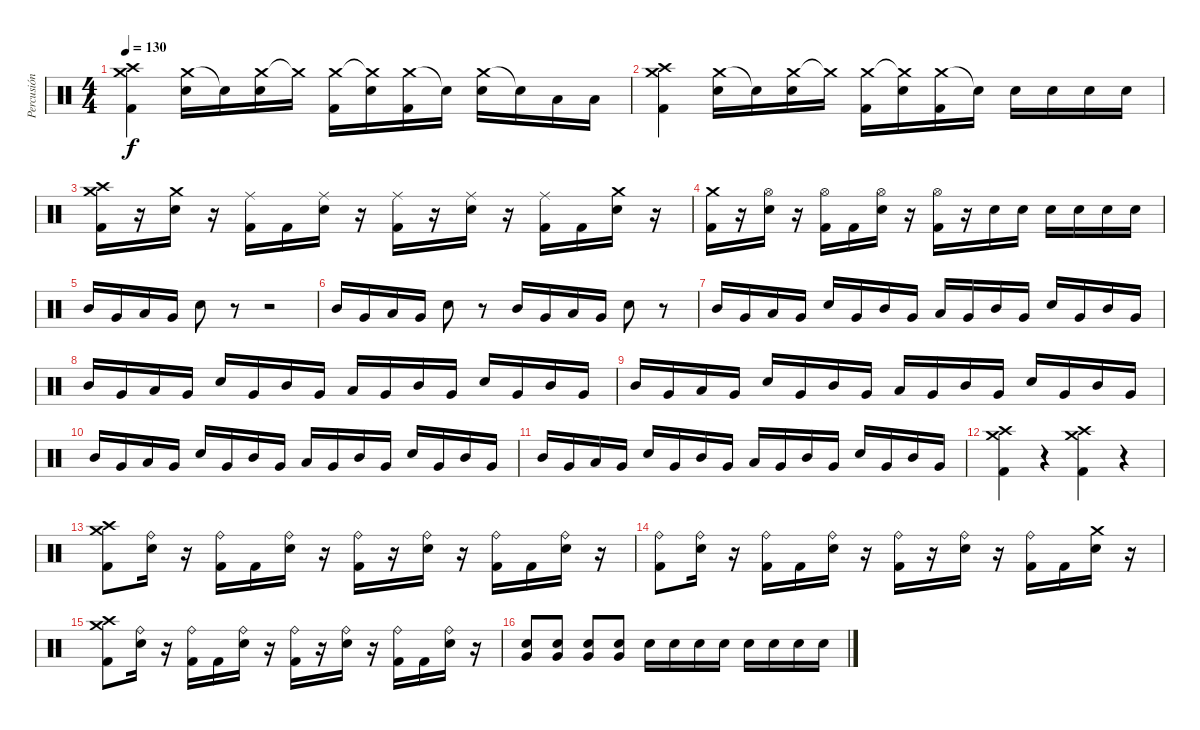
\track ("Percusión" "Percusión") {instrument percussion}
\staff {score}
\articulation defaults
\ts (4 4)
\tempo 130
\clef neutral
\ks c
("Crash medium (hit)" "Crash high (hit)" "Kick (hit) 2").4{dy f} ("Crash medium (hit)" "Electric Snare (hit)").16 "Snare (hit)"{t}.16 ("Crash medium (hit)" "Electric Snare (hit)").16 "Crash medium (hit)"{t}.16 ("Crash medium (hit)" "Kick (hit) 2").16 ("Crash medium (hit)"{t} "Electric Snare (hit)").16 ("Crash medium (hit)" "Kick (hit) 2").16 "Snare (hit)"{t}.16 ("Crash medium (hit)" "Electric Snare (hit)").16 "Snare (hit)"{t}.16 "Low Tom (hit)".16 "Low Tom (hit)".16 |
("Crash medium (hit)" "Crash high (hit)" "Kick (hit) 2").4 ("Crash medium (hit)" "Electric Snare (hit)").16 "Snare (hit)"{t}.16 ("Crash medium (hit)" "Electric Snare (hit)").16 "Crash medium (hit)"{t}.16 ("Crash medium (hit)" "Kick (hit) 2").16 ("Crash medium (hit)"{t} "Electric Snare (hit)").16 ("Crash medium (hit)" "Kick (hit) 2").16 "Snare (hit)"{t}.16 "Electric Snare (hit)".16 "Electric Snare (hit)".16 "Electric Snare (hit)".16 "Electric Snare (hit)".16 |
("Crash medium (hit)" "Crash high (hit)" "Kick (hit) 2").16 r.16 ("Crash medium (hit)" "Electric Snare (hit)").16 r.16 ("Ride (middle)" "Kick (hit) 2").16 "Kick (hit) 2".16 ("Ride (middle)" "Electric Snare (hit)").16 r.16 ("Ride (middle)" "Kick (hit) 2").16 r.16 ("Ride (middle)" "Electric Snare (hit)").16 r.16 ("Ride (middle)" "Kick (hit) 2").16 "Kick (hit) 2".16 ("Crash medium (hit)" "Electric Snare (hit)").16 r.16 |
("Crash medium (hit)" "Kick (hit) 2").16 r.16 ("Hi-Hat (open)" "Electric Snare (hit)").16 r.16 ("Hi-Hat (open)" "Kick (hit) 2").16 "Kick (hit) 2".16 ("Hi-Hat (open)" "Electric Snare (hit)").16 r.16 ("Hi-Hat (open)" "Kick (hit) 2").16 r.16 "Electric Snare (hit)".16 "Electric Snare (hit)".16 "Electric Snare (hit)".16 "Electric Snare (hit)".16 "Electric Snare (hit)".16 "Electric Snare (hit)".16 |
"Mid Tom (hit)".16 "Very Low Tom (hit)".16 "Low Tom (hit)".16 "Very Low Tom (hit)".16 "Electric Snare (hit)".8 r.8 r.2 |
"Mid Tom (hit)".16 "Very Low Tom (hit)".16 "Low Tom (hit)".16 "Very Low Tom (hit)".16 "Electric Snare (hit)".8 r.8 "Mid Tom (hit)".16 "Very Low Tom (hit)".16 "Low Tom (hit)".16 "Very Low Tom (hit)".16 "Electric Snare (hit)".8 r.8 |
"Mid Tom (hit)".16 "Very Low Tom (hit)".16 "Low Tom (hit)".16 "Very Low Tom (hit)".16 "Electric Snare (hit)".16 "Very Low Tom (hit)".16 "Mid Tom (hit)".16 "Very Low Tom (hit)".16 "Low Tom (hit)".16 "Very Low Tom (hit)".16 "Mid Tom (hit)".16 "Very Low Tom (hit)".16 "Electric Snare (hit)".16 "Very Low Tom (hit)".16 "Mid Tom (hit)".16 "Very Low Tom (hit)".16 |
"Mid Tom (hit)".16 "Very Low Tom (hit)".16 "Low Tom (hit)".16 "Very Low Tom (hit)".16 "Electric Snare (hit)".16 "Very Low Tom (hit)".16 "Mid Tom (hit)".16 "Very Low Tom (hit)".16 "Low Tom (hit)".16 "Very Low Tom (hit)".16 "Mid Tom (hit)".16 "Very Low Tom (hit)".16 "Electric Snare (hit)".16 "Very Low Tom (hit)".16 "Mid Tom (hit)".16 "Very Low Tom (hit)".16 |
"Mid Tom (hit)".16 "Very Low Tom (hit)".16 "Low Tom (hit)".16 "Very Low Tom (hit)".16 "Electric Snare (hit)".16 "Very Low Tom (hit)".16 "Mid Tom (hit)".16 "Very Low Tom (hit)".16 "Low Tom (hit)".16 "Very Low Tom (hit)".16 "Mid Tom (hit)".16 "Very Low Tom (hit)".16 "Electric Snare (hit)".16 "Very Low Tom (hit)".16 "Mid Tom (hit)".16 "Very Low Tom (hit)".16 |
"Mid Tom (hit)".16 "Very Low Tom (hit)".16 "Low Tom (hit)".16 "Very Low Tom (hit)".16 "Electric Snare (hit)".16 "Very Low Tom (hit)".16 "Mid Tom (hit)".16 "Very Low Tom (hit)".16 "Low Tom (hit)".16 "Very Low Tom (hit)".16 "Mid Tom (hit)".16 "Very Low Tom (hit)".16 "Electric Snare (hit)".16 "Very Low Tom (hit)".16 "Mid Tom (hit)".16 "Very Low Tom (hit)".16 |
"Mid Tom (hit)".16 "Very Low Tom (hit)".16 "Low Tom (hit)".16 "Very Low Tom (hit)".16 "Electric Snare (hit)".16 "Very Low Tom (hit)".16 "Mid Tom (hit)".16 "Very Low Tom (hit)".16 "Low Tom (hit)".16 "Very Low Tom (hit)".16 "Mid Tom (hit)".16 "Very Low Tom (hit)".16 "Electric Snare (hit)".16 "Very Low Tom (hit)".16 "Mid Tom (hit)".16 "Very Low Tom (hit)".16 |
("Crash high (hit)" "Crash medium (hit)" "Kick (hit) 2").4 r.4 ("Crash high (hit)" "Crash medium (hit)" "Kick (hit) 2").4 r.4 |
("Crash high (hit)" "Crash medium (hit)" "Kick (hit) 2").8 ("Ride (bell)" "Electric Snare (hit)").16 r.16 ("Ride (bell)" "Kick (hit) 2").16 "Kick (hit) 2".16 ("Ride (bell)" "Electric Snare (hit)").16 r.16 ("Ride (bell)" "Kick (hit) 2").16 r.16 ("Ride (bell)" "Electric Snare (hit)").16 r.16 ("Ride (bell)" "Kick (hit) 2").16 "Kick (hit) 2".16 ("Ride (bell)" "Electric Snare (hit)").16 r.16 |
("Ride (bell)" "Kick (hit) 2").8 ("Ride (bell)" "Electric Snare (hit)").16 r.16 ("Ride (bell)" "Kick (hit) 2").16 "Kick (hit) 2".16 ("Ride (bell)" "Electric Snare (hit)").16 r.16 ("Ride (bell)" "Kick (hit) 2").16 r.16 ("Ride (bell)" "Electric Snare (hit)").16 r.16 ("Ride (bell)" "Kick (hit) 2").16 "Kick (hit) 2".16 ("Crash medium (hit)" "Electric Snare (hit)").16 r.16 |
("Crash high (hit)" "Crash medium (hit)" "Kick (hit) 2").8 ("Ride (bell)" "Electric Snare (hit)").16 r.16 ("Ride (bell)" "Kick (hit) 2").16 "Kick (hit) 2".16 ("Ride (bell)" "Electric Snare (hit)").16 r.16 ("Ride (bell)" "Kick (hit) 2").16 r.16 ("Ride (bell)" "Electric Snare (hit)").16 r.16 ("Ride (bell)" "Kick (hit) 2").16 "Kick (hit) 2".16 ("Ride (bell)" "Electric Snare (hit)").16 r.16 |
("Very Low Tom (hit)" "Electric Snare (hit)").8 ("Very Low Tom (hit)" "Electric Snare (hit)").8 ("Very Low Tom (hit)" "Electric Snare (hit)").8 ("Very Low Tom (hit)" "Electric Snare (hit)").8 "Electric Snare (hit)".16 "Electric Snare (hit)".16 "Electric Snare (hit)".16 "Electric Snare (hit)".16 "Electric Snare (hit)".16 "Electric Snare (hit)".16 "Electric Snare (hit)".16 "Electric Snare (hit)".16
